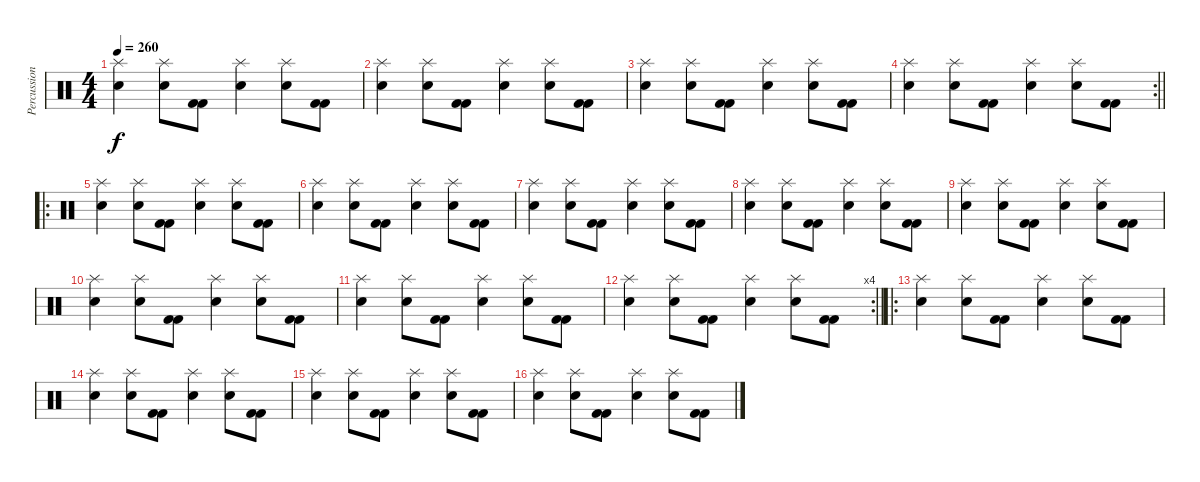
\track ("Percussions" "Percussion") {instrument percussion}
\staff {score}
\articulation defaults
\ts (4 4)
\tempo 260
\clef neutral
\ks c
("Electric Snare (hit)" "Splash (hit)").4{dy f} ("Electric Snare (hit)" "Splash (hit)").8 ("Kick (hit) 2" "Kick (hit) 2").8 ("Electric Snare (hit)" "Splash (hit)").4 ("Electric Snare (hit)" "Splash (hit)").8 ("Kick (hit) 2" "Kick (hit) 2").8 |
("Electric Snare (hit)" "Splash (hit)").4 ("Electric Snare (hit)" "Splash (hit)").8 ("Kick (hit) 2" "Kick (hit) 2").8 ("Electric Snare (hit)" "Splash (hit)").4 ("Electric Snare (hit)" "Splash (hit)").8 ("Kick (hit) 2" "Kick (hit) 2").8 |
("Electric Snare (hit)" "Splash (hit)").4 ("Electric Snare (hit)" "Splash (hit)").8 ("Kick (hit) 2" "Kick (hit) 2").8 ("Electric Snare (hit)" "Splash (hit)").4 ("Electric Snare (hit)" "Splash (hit)").8 ("Kick (hit) 2" "Kick (hit) 2").8 |
\rc 2
\barLineRight lightlight
("Electric Snare (hit)" "Splash (hit)").4 ("Electric Snare (hit)" "Splash (hit)").8 ("Kick (hit) 2" "Kick (hit) 2").8 ("Electric Snare (hit)" "Splash (hit)").4 ("Electric Snare (hit)" "Splash (hit)").8 ("Kick (hit) 2" "Kick (hit) 2").8 |
\ro
\section ("" "")
("Electric Snare (hit)" "Splash (hit)").4 ("Electric Snare (hit)" "Splash (hit)").8 ("Kick (hit) 2" "Kick (hit) 2").8 ("Electric Snare (hit)" "Splash (hit)").4 ("Electric Snare (hit)" "Splash (hit)").8 ("Kick (hit) 2" "Kick (hit) 2").8 |
("Electric Snare (hit)" "Splash (hit)").4 ("Electric Snare (hit)" "Splash (hit)").8 ("Kick (hit) 2" "Kick (hit) 2").8 ("Electric Snare (hit)" "Splash (hit)").4 ("Electric Snare (hit)" "Splash (hit)").8 ("Kick (hit) 2" "Kick (hit) 2").8 |
("Electric Snare (hit)" "Splash (hit)").4 ("Electric Snare (hit)" "Splash (hit)").8 ("Kick (hit) 2" "Kick (hit) 2").8 ("Electric Snare (hit)" "Splash (hit)").4 ("Electric Snare (hit)" "Splash (hit)").8 ("Kick (hit) 2" "Kick (hit) 2").8 |
("Electric Snare (hit)" "Splash (hit)").4 ("Electric Snare (hit)" "Splash (hit)").8 ("Kick (hit) 2" "Kick (hit) 2").8 ("Electric Snare (hit)" "Splash (hit)").4 ("Electric Snare (hit)" "Splash (hit)").8 ("Kick (hit) 2" "Kick (hit) 2").8 |
("Electric Snare (hit)" "Splash (hit)").4 ("Electric Snare (hit)" "Splash (hit)").8 ("Kick (hit) 2" "Kick (hit) 2").8 ("Electric Snare (hit)" "Splash (hit)").4 ("Electric Snare (hit)" "Splash (hit)").8 ("Kick (hit) 2" "Kick (hit) 2").8 |
("Electric Snare (hit)" "Splash (hit)").4 ("Electric Snare (hit)" "Splash (hit)").8 ("Kick (hit) 2" "Kick (hit) 2").8 ("Electric Snare (hit)" "Splash (hit)").4 ("Electric Snare (hit)" "Splash (hit)").8 ("Kick (hit) 2" "Kick (hit) 2").8 |
("Electric Snare (hit)" "Splash (hit)").4 ("Electric Snare (hit)" "Splash (hit)").8 ("Kick (hit) 2" "Kick (hit) 2").8 ("Electric Snare (hit)" "Splash (hit)").4 ("Electric Snare (hit)" "Splash (hit)").8 ("Kick (hit) 2" "Kick (hit) 2").8 |
\rc 4
\barLineRight lightlight
("Electric Snare (hit)" "Splash (hit)").4 ("Electric Snare (hit)" "Splash (hit)").8 ("Kick (hit) 2" "Kick (hit) 2").8 ("Electric Snare (hit)" "Splash (hit)").4 ("Electric Snare (hit)" "Splash (hit)").8 ("Kick (hit) 2" "Kick (hit) 2").8 |
\ro
\section ("" "")
("Electric Snare (hit)" "Splash (hit)").4 ("Electric Snare (hit)" "Splash (hit)").8 ("Kick (hit) 2" "Kick (hit) 2").8 ("Electric Snare (hit)" "Splash (hit)").4 ("Electric Snare (hit)" "Splash (hit)").8 ("Kick (hit) 2" "Kick (hit) 2").8 |
("Electric Snare (hit)" "Splash (hit)").4 ("Electric Snare (hit)" "Splash (hit)").8 ("Kick (hit) 2" "Kick (hit) 2").8 ("Electric Snare (hit)" "Splash (hit)").4 ("Electric Snare (hit)" "Splash (hit)").8 ("Kick (hit) 2" "Kick (hit) 2").8 |
("Electric Snare (hit)" "Splash (hit)").4 ("Electric Snare (hit)" "Splash (hit)").8 ("Kick (hit) 2" "Kick (hit) 2").8 ("Electric Snare (hit)" "Splash (hit)").4 ("Electric Snare (hit)" "Splash (hit)").8 ("Kick (hit) 2" "Kick (hit) 2").8 |
("Electric Snare (hit)" "Splash (hit)").4 ("Electric Snare (hit)" "Splash (hit)").8 ("Kick (hit) 2" "Kick (hit) 2").8 ("Electric Snare (hit)" "Splash (hit)").4 ("Electric Snare (hit)" "Splash (hit)").8 ("Kick (hit) 2" "Kick (hit) 2").8
